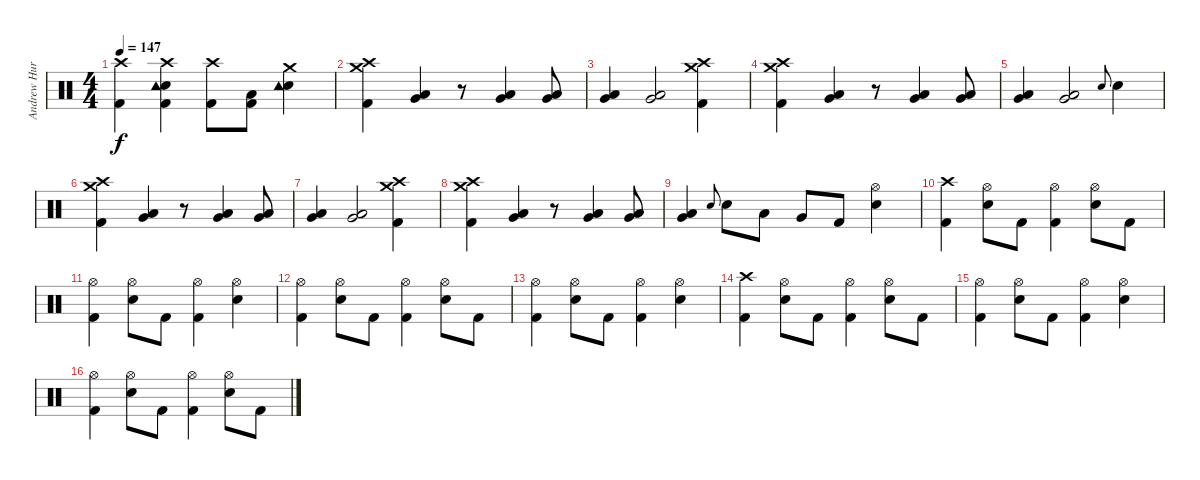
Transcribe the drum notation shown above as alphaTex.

\track ("Andrew Hurley (Drums)" "Andrew Hur") {instrument percussion}
\staff {score}
\articulation defaults
\ts (4 4)
\tempo 147
\clef neutral
\ks c
("Crash high (hit)" "Kick (hit) 2").4{dy f} ("Crash high (hit)" "Snare (hit) 2" "Kick (hit) 2" "Tambourine (hit)").4 ("Crash high (hit)" "Kick (hit) 2").8 ("Low Tom (hit)" "Kick (hit) 2").8 ("Crash medium (hit)" "Snare (hit) 2" "Tambourine (hit)").4 |
("Crash high (hit)" "Crash medium (hit)" "Kick (hit) 2").4 ("Very Low Tom (hit)" "Low Tom (hit)").4 r.8 ("Very Low Tom (hit)" "Low Tom (hit)").4 ("Very Low Tom (hit)" "Low Tom (hit)").8 |
("Very Low Tom (hit)" "Low Tom (hit)").4 ("Very Low Tom (hit)" "Low Tom (hit)").2 ("Crash high (hit)" "Crash medium (hit)" "Kick (hit) 2").4 |
("Crash high (hit)" "Crash medium (hit)" "Kick (hit) 2").4 ("Very Low Tom (hit)" "Low Tom (hit)").4 r.8 ("Very Low Tom (hit)" "Low Tom (hit)").4 ("Very Low Tom (hit)" "Low Tom (hit)").8 |
("Very Low Tom (hit)" "Low Tom (hit)").4 ("Very Low Tom (hit)" "Low Tom (hit)").2 "Snare (hit) 2".8{gr onbeat} "Snare (hit) 2".4 |
("Crash high (hit)" "Crash medium (hit)" "Kick (hit) 2").4 ("Very Low Tom (hit)" "Low Tom (hit)").4 r.8 ("Very Low Tom (hit)" "Low Tom (hit)").4 ("Very Low Tom (hit)" "Low Tom (hit)").8 |
("Very Low Tom (hit)" "Low Tom (hit)").4 ("Very Low Tom (hit)" "Low Tom (hit)").2 ("Crash high (hit)" "Crash medium (hit)" "Kick (hit) 2").4 |
("Crash high (hit)" "Crash medium (hit)" "Kick (hit) 2").4 ("Very Low Tom (hit)" "Low Tom (hit)").4 r.8 ("Very Low Tom (hit)" "Low Tom (hit)").4 ("Very Low Tom (hit)" "Low Tom (hit)").8 |
("Very Low Tom (hit)" "Low Tom (hit)").4 "Snare (hit) 2".8{gr onbeat} "Snare (hit) 2".8 "Low Tom (hit)".8 "Very Low Tom (hit)".8 "Kick (hit) 2".8 ("Hi-Hat (open)" "Snare (hit) 2").4 |
("Crash high (hit)" "Kick (hit) 2").4 ("Hi-Hat (open)" "Snare (hit) 2").8 "Kick (hit) 2".8 ("Hi-Hat (open)" "Kick (hit) 2").4 ("Hi-Hat (open)" "Snare (hit) 2").8 "Kick (hit) 2".8 |
("Hi-Hat (open)" "Kick (hit) 2").4 ("Hi-Hat (open)" "Snare (hit) 2").8 "Kick (hit) 2".8 ("Hi-Hat (open)" "Kick (hit) 2").4 ("Hi-Hat (open)" "Snare (hit) 2").4 |
("Hi-Hat (open)" "Kick (hit) 2").4 ("Hi-Hat (open)" "Snare (hit) 2").8 "Kick (hit) 2".8 ("Hi-Hat (open)" "Kick (hit) 2").4 ("Hi-Hat (open)" "Snare (hit) 2").8 "Kick (hit) 2".8 |
("Hi-Hat (open)" "Kick (hit) 2").4 ("Hi-Hat (open)" "Snare (hit) 2").8 "Kick (hit) 2".8 ("Hi-Hat (open)" "Kick (hit) 2").4 ("Hi-Hat (open)" "Snare (hit) 2").4 |
("Crash high (hit)" "Kick (hit) 2").4 ("Hi-Hat (open)" "Snare (hit) 2").8 "Kick (hit) 2".8 ("Hi-Hat (open)" "Kick (hit) 2").4 ("Hi-Hat (open)" "Snare (hit) 2").8 "Kick (hit) 2".8 |
("Hi-Hat (open)" "Kick (hit) 2").4 ("Hi-Hat (open)" "Snare (hit) 2").8 "Kick (hit) 2".8 ("Hi-Hat (open)" "Kick (hit) 2").4 ("Hi-Hat (open)" "Snare (hit) 2").4 |
("Hi-Hat (open)" "Kick (hit) 2").4 ("Hi-Hat (open)" "Snare (hit) 2").8 "Kick (hit) 2".8 ("Hi-Hat (open)" "Kick (hit) 2").4 ("Hi-Hat (open)" "Snare (hit) 2").8 "Kick (hit) 2".8
